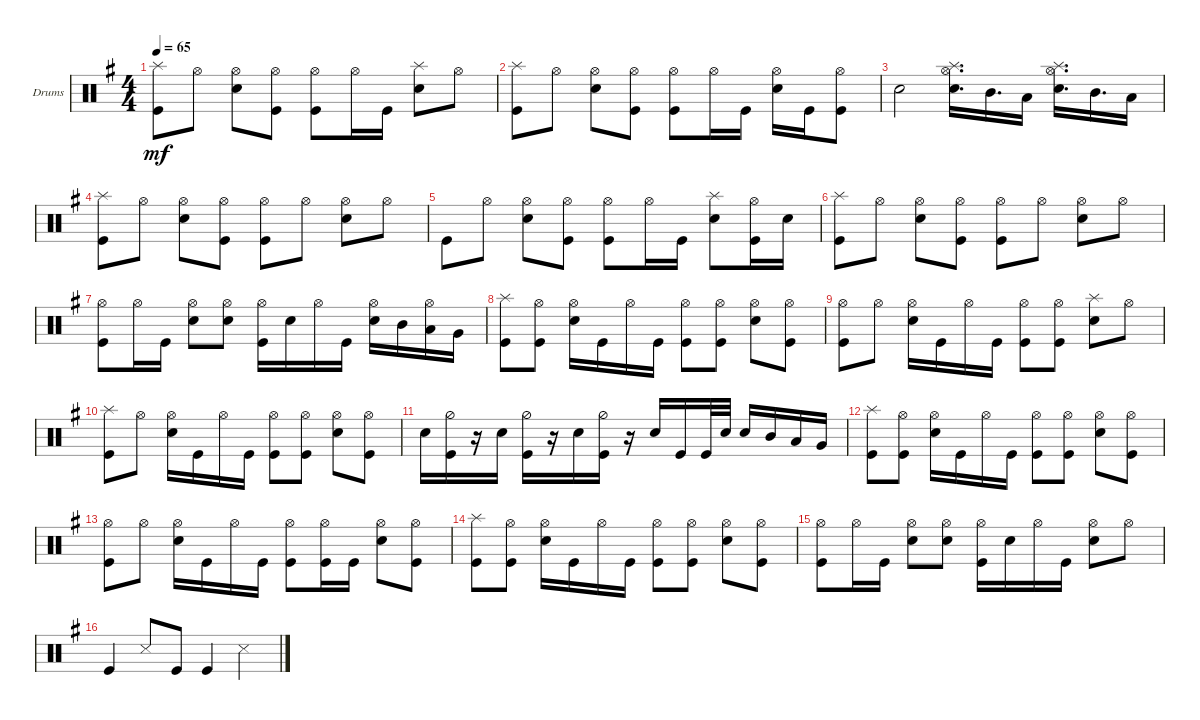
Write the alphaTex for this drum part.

\defaultSystemsLayout 4
\bracketExtendMode groupsimilarinstruments
\firstSystemTrackNameOrientation horizontal
\otherSystemsTrackNameOrientation horizontal
\track ("Drumkit" "Drums") {instrument percussion}
\staff {score}
\articulation defaults
\ts (4 4)
\tempo 65
\clef neutral
\ks g
("Kick (hit)" "Splash (hit)").8{dy mf} "Hi-Hat (open)".8 ("Hi-Hat (open)" "Snare (hit) 2").8 ("Hi-Hat (open)" "Kick (hit)").8 ("Hi-Hat (open)" "Kick (hit)").8 "Hi-Hat (open)".16 "Kick (hit)".16 ("Snare (hit) 2" "Splash (hit)").8 "Hi-Hat (open)".8 |
("Kick (hit)" "Splash (hit)").8 "Hi-Hat (open)".8 ("Hi-Hat (open)" "Snare (hit) 2").8 ("Hi-Hat (open)" "Kick (hit)").8 ("Hi-Hat (open)" "Kick (hit)").8 "Hi-Hat (open)".16 "Kick (hit)".16 ("Snare (hit) 2" "Hi-Hat (open)").16 "Kick (hit)".16 ("Kick (hit)" "Hi-Hat (open)").8 |
"Snare (hit) 2".2 ("Snare (hit) 2" "Splash (hit)" "Hi-Hat (open)").16{d} "Mid Tom (hit)".16{d} "Low Tom (hit)".16 ("Snare (hit) 2" "Splash (hit)" "Hi-Hat (open)").16{d} "Mid Tom (hit)".16{d} "Low Tom (hit)".16 |
("Kick (hit)" "Splash (hit)").8 "Hi-Hat (open)".8 ("Hi-Hat (open)" "Snare (hit) 2").8 ("Hi-Hat (open)" "Kick (hit)").8 ("Hi-Hat (open)" "Kick (hit)").8 "Hi-Hat (open)".8 ("Hi-Hat (open)" "Snare (hit) 2").8 "Hi-Hat (open)".8 |
"Kick (hit)".8 "Hi-Hat (open)".8 ("Hi-Hat (open)" "Snare (hit) 2").8 ("Hi-Hat (open)" "Kick (hit)").8 ("Hi-Hat (open)" "Kick (hit)").8 "Hi-Hat (open)".16 "Kick (hit)".16 ("Snare (hit) 2" "Splash (hit)").8 ("Hi-Hat (open)" "Kick (hit)").16 "Snare (hit) 2".16 |
("Kick (hit)" "Splash (hit)").8 "Hi-Hat (open)".8 ("Hi-Hat (open)" "Snare (hit) 2").8 ("Hi-Hat (open)" "Kick (hit)").8 ("Hi-Hat (open)" "Kick (hit)").8 "Hi-Hat (open)".8 ("Hi-Hat (open)" "Snare (hit) 2").8 "Hi-Hat (open)".8 |
("Kick (hit)" "Hi-Hat (open)").8 "Hi-Hat (open)".16 "Kick (hit)".16 ("Snare (hit) 2" "Hi-Hat (open)").8 ("Snare (hit) 2" "Hi-Hat (open)").8 ("Kick (hit)" "Hi-Hat (open)").16 "Snare (hit) 2".16 "Hi-Hat (open)".16 "Kick (hit)".16 ("Snare (hit) 2" "Hi-Hat (open)").16 "Mid Tom (hit)".16 ("Low Tom (hit)" "Hi-Hat (open)").16 "Very Low Tom (hit)".16 |
("Kick (hit)" "Splash (hit)").8 ("Kick (hit)" "Hi-Hat (open)").8 ("Snare (hit) 2" "Hi-Hat (open)").16 "Kick (hit)".16 "Hi-Hat (open)".16 "Kick (hit)".16 ("Kick (hit)" "Hi-Hat (open)").8 ("Kick (hit)" "Hi-Hat (open)").8 ("Snare (hit) 2" "Hi-Hat (open)").8 ("Kick (hit)" "Hi-Hat (open)").8 |
("Kick (hit)" "Hi-Hat (open)").8 "Hi-Hat (open)".8 ("Snare (hit) 2" "Hi-Hat (open)").16 "Kick (hit)".16 "Hi-Hat (open)".16 "Kick (hit)".16 ("Kick (hit)" "Hi-Hat (open)").8 ("Kick (hit)" "Hi-Hat (open)").8 ("Snare (hit) 2" "Splash (hit)").8 "Hi-Hat (open)".8 |
("Kick (hit)" "Splash (hit)").8 "Hi-Hat (open)".8 ("Snare (hit) 2" "Hi-Hat (open)").16 "Kick (hit)".16 "Hi-Hat (open)".16 "Kick (hit)".16 ("Kick (hit)" "Hi-Hat (open)").8 ("Kick (hit)" "Hi-Hat (open)").8 ("Snare (hit) 2" "Hi-Hat (open)").8 ("Kick (hit)" "Hi-Hat (open)").8 |
"Snare (hit) 2".16 ("Kick (hit)" "Hi-Hat (half)").16 r.16 "Snare (hit) 2".16 ("Kick (hit)" "Hi-Hat (half)").16 r.16 "Snare (hit) 2".16 ("Kick (hit)" "Hi-Hat (half)").16 r.16 "Snare (hit) 2".16 "Kick (hit)".16 "Kick (hit)".32 "Snare (hit) 2".32 "Snare (hit) 2".16 "Mid Tom (hit)".16 "Low Tom (hit)".16 "Very Low Tom (hit)".16 |
("Kick (hit)" "Splash (hit)").8 ("Kick (hit)" "Hi-Hat (open)").8 ("Snare (hit) 2" "Hi-Hat (open)").16 "Kick (hit)".16 "Hi-Hat (open)".16 "Kick (hit)".16 ("Kick (hit)" "Hi-Hat (open)").8 ("Kick (hit)" "Hi-Hat (open)").8 ("Snare (hit) 2" "Hi-Hat (open)").8 ("Kick (hit)" "Hi-Hat (open)").8 |
("Kick (hit)" "Hi-Hat (open)").8 "Hi-Hat (open)".8 ("Snare (hit) 2" "Hi-Hat (open)").16 "Kick (hit)".16 "Hi-Hat (open)".16 "Kick (hit)".16 ("Kick (hit)" "Hi-Hat (open)").8 ("Kick (hit)" "Hi-Hat (open)").16 "Kick (hit)".16 ("Snare (hit) 2" "Hi-Hat (open)").8 ("Kick (hit)" "Hi-Hat (open)").8 |
("Kick (hit)" "Splash (hit)").8 ("Kick (hit)" "Hi-Hat (open)").8 ("Snare (hit) 2" "Hi-Hat (open)").16 "Kick (hit)".16 "Hi-Hat (open)".16 "Kick (hit)".16 ("Kick (hit)" "Hi-Hat (open)").8 ("Kick (hit)" "Hi-Hat (open)").8 ("Snare (hit) 2" "Hi-Hat (open)").8 ("Kick (hit)" "Hi-Hat (open)").8 |
("Kick (hit)" "Hi-Hat (open)").8 "Hi-Hat (open)".16 "Kick (hit)".16 ("Snare (hit) 2" "Hi-Hat (open)").8 ("Snare (hit) 2" "Hi-Hat (open)").8 ("Kick (hit)" "Hi-Hat (open)").16 "Snare (hit) 2".16 "Hi-Hat (open)".16 "Kick (hit)".16 ("Snare (hit) 2" "Hi-Hat (open)").8 "Hi-Hat (open)".8 |
"Kick (hit)".4 "Snare (side stick) 3".8 "Kick (hit)".8 "Kick (hit)".4 "Snare (side stick) 3".4
